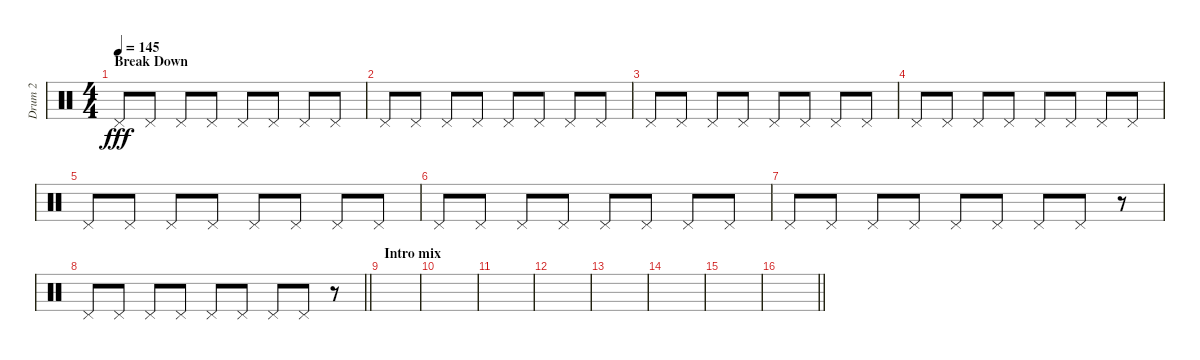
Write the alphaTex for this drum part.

\track ("Drum 2" "Drum 2") {instrument percussion}
\staff {score}
\articulation defaults
\ts (4 4)
\section ("" "Break Down")
\tempo 145
\clef neutral
\ks c "Pedal Hi-Hat (hit)".8{dy fff} "Pedal Hi-Hat (hit)".8 "Pedal Hi-Hat (hit)".8 "Pedal Hi-Hat (hit)".8 "Pedal Hi-Hat (hit)".8 "Pedal Hi-Hat (hit)".8 "Pedal Hi-Hat (hit)".8 "Pedal Hi-Hat (hit)".8
|
"Pedal Hi-Hat (hit)".8 "Pedal Hi-Hat (hit)".8 "Pedal Hi-Hat (hit)".8 "Pedal Hi-Hat (hit)".8 "Pedal Hi-Hat (hit)".8 "Pedal Hi-Hat (hit)".8 "Pedal Hi-Hat (hit)".8 "Pedal Hi-Hat (hit)".8 |
"Pedal Hi-Hat (hit)".8 "Pedal Hi-Hat (hit)".8 "Pedal Hi-Hat (hit)".8 "Pedal Hi-Hat (hit)".8 "Pedal Hi-Hat (hit)".8 "Pedal Hi-Hat (hit)".8 "Pedal Hi-Hat (hit)".8 "Pedal Hi-Hat (hit)".8 |
"Pedal Hi-Hat (hit)".8 "Pedal Hi-Hat (hit)".8 "Pedal Hi-Hat (hit)".8 "Pedal Hi-Hat (hit)".8 "Pedal Hi-Hat (hit)".8 "Pedal Hi-Hat (hit)".8 "Pedal Hi-Hat (hit)".8 "Pedal Hi-Hat (hit)".8 |
"Pedal Hi-Hat (hit)".8 "Pedal Hi-Hat (hit)".8 "Pedal Hi-Hat (hit)".8 "Pedal Hi-Hat (hit)".8 "Pedal Hi-Hat (hit)".8 "Pedal Hi-Hat (hit)".8 "Pedal Hi-Hat (hit)".8 "Pedal Hi-Hat (hit)".8 |
"Pedal Hi-Hat (hit)".8 "Pedal Hi-Hat (hit)".8 "Pedal Hi-Hat (hit)".8 "Pedal Hi-Hat (hit)".8 "Pedal Hi-Hat (hit)".8 "Pedal Hi-Hat (hit)".8 "Pedal Hi-Hat (hit)".8 "Pedal Hi-Hat (hit)".8 |
"Pedal Hi-Hat (hit)".8 "Pedal Hi-Hat (hit)".8 "Pedal Hi-Hat (hit)".8 "Pedal Hi-Hat (hit)".8 "Pedal Hi-Hat (hit)".8 "Pedal Hi-Hat (hit)".8 "Pedal Hi-Hat (hit)".8 "Pedal Hi-Hat (hit)".8 r.8 |
\barLineRight lightlight "Pedal Hi-Hat (hit)".8 "Pedal Hi-Hat (hit)".8 "Pedal Hi-Hat (hit)".8 "Pedal Hi-Hat (hit)".8 "Pedal Hi-Hat (hit)".8 "Pedal Hi-Hat (hit)".8 "Pedal Hi-Hat (hit)".8 "Pedal Hi-Hat (hit)".8
r.8 |
\section ("" "Intro mix")
|
|
|
|
|
|
|
\barLineRight lightlight
